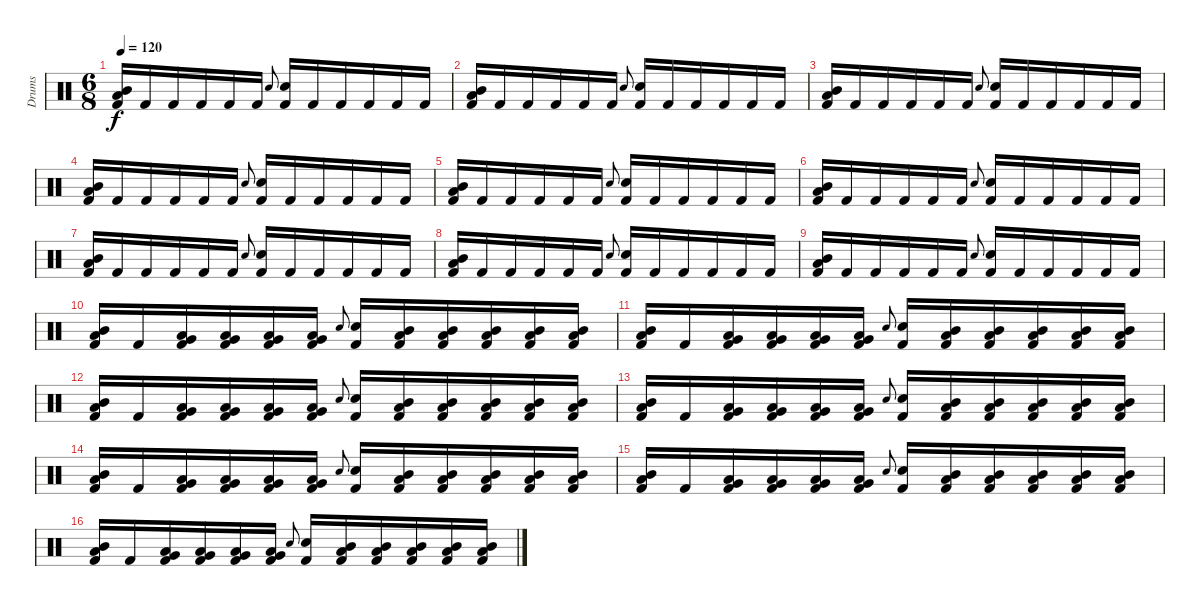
\track ("Drums" "Drums") {instrument percussion}
\staff {score}
\articulation defaults
\ts (6 8)
\tempo 120
\clef neutral
\ks c
("Mid Tom (hit)" "Low Tom (hit)" "Kick (hit) 2").16{dy f} "Kick (hit) 2".16 "Kick (hit) 2".16 "Kick (hit) 2".16 "Kick (hit) 2".16 "Kick (hit) 2".16 "Electric Snare (hit)".8{gr onbeat} ("Electric Snare (hit)" "Kick (hit) 2").16 "Kick (hit) 2".16 "Kick (hit) 2".16 "Kick (hit) 2".16 "Kick (hit) 2".16 "Kick (hit) 2".16 |
("Mid Tom (hit)" "Low Tom (hit)" "Kick (hit) 2").16 "Kick (hit) 2".16 "Kick (hit) 2".16 "Kick (hit) 2".16 "Kick (hit) 2".16 "Kick (hit) 2".16 "Electric Snare (hit)".8{gr onbeat} ("Electric Snare (hit)" "Kick (hit) 2").16 "Kick (hit) 2".16 "Kick (hit) 2".16 "Kick (hit) 2".16 "Kick (hit) 2".16 "Kick (hit) 2".16 |
("Mid Tom (hit)" "Low Tom (hit)" "Kick (hit) 2").16 "Kick (hit) 2".16 "Kick (hit) 2".16 "Kick (hit) 2".16 "Kick (hit) 2".16 "Kick (hit) 2".16 "Electric Snare (hit)".8{gr onbeat} ("Electric Snare (hit)" "Kick (hit) 2").16 "Kick (hit) 2".16 "Kick (hit) 2".16 "Kick (hit) 2".16 "Kick (hit) 2".16 "Kick (hit) 2".16 |
("Mid Tom (hit)" "Low Tom (hit)" "Kick (hit) 2").16 "Kick (hit) 2".16 "Kick (hit) 2".16 "Kick (hit) 2".16 "Kick (hit) 2".16 "Kick (hit) 2".16 "Electric Snare (hit)".8{gr onbeat} ("Electric Snare (hit)" "Kick (hit) 2").16 "Kick (hit) 2".16 "Kick (hit) 2".16 "Kick (hit) 2".16 "Kick (hit) 2".16 "Kick (hit) 2".16 |
("Mid Tom (hit)" "Low Tom (hit)" "Kick (hit) 2").16 "Kick (hit) 2".16 "Kick (hit) 2".16 "Kick (hit) 2".16 "Kick (hit) 2".16 "Kick (hit) 2".16 "Electric Snare (hit)".8{gr onbeat} ("Electric Snare (hit)" "Kick (hit) 2").16 "Kick (hit) 2".16 "Kick (hit) 2".16 "Kick (hit) 2".16 "Kick (hit) 2".16 "Kick (hit) 2".16 |
("Mid Tom (hit)" "Low Tom (hit)" "Kick (hit) 2").16 "Kick (hit) 2".16 "Kick (hit) 2".16 "Kick (hit) 2".16 "Kick (hit) 2".16 "Kick (hit) 2".16 "Electric Snare (hit)".8{gr onbeat} ("Electric Snare (hit)" "Kick (hit) 2").16 "Kick (hit) 2".16 "Kick (hit) 2".16 "Kick (hit) 2".16 "Kick (hit) 2".16 "Kick (hit) 2".16 |
("Mid Tom (hit)" "Low Tom (hit)" "Kick (hit) 2").16 "Kick (hit) 2".16 "Kick (hit) 2".16 "Kick (hit) 2".16 "Kick (hit) 2".16 "Kick (hit) 2".16 "Electric Snare (hit)".8{gr onbeat} ("Electric Snare (hit)" "Kick (hit) 2").16 "Kick (hit) 2".16 "Kick (hit) 2".16 "Kick (hit) 2".16 "Kick (hit) 2".16 "Kick (hit) 2".16 |
("Mid Tom (hit)" "Low Tom (hit)" "Kick (hit) 2").16 "Kick (hit) 2".16 "Kick (hit) 2".16 "Kick (hit) 2".16 "Kick (hit) 2".16 "Kick (hit) 2".16 "Electric Snare (hit)".8{gr onbeat} ("Electric Snare (hit)" "Kick (hit) 2").16 "Kick (hit) 2".16 "Kick (hit) 2".16 "Kick (hit) 2".16 "Kick (hit) 2".16 "Kick (hit) 2".16 |
("Mid Tom (hit)" "Low Tom (hit)" "Kick (hit) 2").16 "Kick (hit) 2".16 "Kick (hit) 2".16 "Kick (hit) 2".16 "Kick (hit) 2".16 "Kick (hit) 2".16 "Electric Snare (hit)".8{gr onbeat} ("Electric Snare (hit)" "Kick (hit) 2").16 "Kick (hit) 2".16 "Kick (hit) 2".16 "Kick (hit) 2".16 "Kick (hit) 2".16 "Kick (hit) 2".16 |
("Mid Tom (hit)" "Low Tom (hit)" "Kick (hit) 2").16 "Kick (hit) 2".16 ("Very Low Tom (hit)" "Low Tom (hit)" "Kick (hit) 2").16 ("Very Low Tom (hit)" "Low Tom (hit)" "Kick (hit) 2").16 ("Very Low Tom (hit)" "Low Tom (hit)" "Kick (hit) 2").16 ("Very Low Tom (hit)" "Low Tom (hit)" "Kick (hit) 2").16 "Electric Snare (hit)".8{gr onbeat} ("Electric Snare (hit)" "Kick (hit) 2").16 ("Mid Tom (hit)" "Low Tom (hit)" "Kick (hit) 2").16 ("Mid Tom (hit)" "Low Tom (hit)" "Kick (hit) 2").16 ("Mid Tom (hit)" "Low Tom (hit)" "Kick (hit) 2").16 ("Mid Tom (hit)" "Low Tom (hit)" "Kick (hit) 2").16 ("Mid Tom (hit)" "Low Tom (hit)" "Kick (hit) 2").16 |
("Mid Tom (hit)" "Low Tom (hit)" "Kick (hit) 2").16 "Kick (hit) 2".16 ("Very Low Tom (hit)" "Low Tom (hit)" "Kick (hit) 2").16 ("Very Low Tom (hit)" "Low Tom (hit)" "Kick (hit) 2").16 ("Very Low Tom (hit)" "Low Tom (hit)" "Kick (hit) 2").16 ("Very Low Tom (hit)" "Low Tom (hit)" "Kick (hit) 2").16 "Electric Snare (hit)".8{gr onbeat} ("Electric Snare (hit)" "Kick (hit) 2").16 ("Mid Tom (hit)" "Low Tom (hit)" "Kick (hit) 2").16 ("Mid Tom (hit)" "Low Tom (hit)" "Kick (hit) 2").16 ("Mid Tom (hit)" "Low Tom (hit)" "Kick (hit) 2").16 ("Mid Tom (hit)" "Low Tom (hit)" "Kick (hit) 2").16 ("Mid Tom (hit)" "Low Tom (hit)" "Kick (hit) 2").16 |
("Mid Tom (hit)" "Low Tom (hit)" "Kick (hit) 2").16 "Kick (hit) 2".16 ("Very Low Tom (hit)" "Low Tom (hit)" "Kick (hit) 2").16 ("Very Low Tom (hit)" "Low Tom (hit)" "Kick (hit) 2").16 ("Very Low Tom (hit)" "Low Tom (hit)" "Kick (hit) 2").16 ("Very Low Tom (hit)" "Low Tom (hit)" "Kick (hit) 2").16 "Electric Snare (hit)".8{gr onbeat} ("Electric Snare (hit)" "Kick (hit) 2").16 ("Mid Tom (hit)" "Low Tom (hit)" "Kick (hit) 2").16 ("Mid Tom (hit)" "Low Tom (hit)" "Kick (hit) 2").16 ("Mid Tom (hit)" "Low Tom (hit)" "Kick (hit) 2").16 ("Mid Tom (hit)" "Low Tom (hit)" "Kick (hit) 2").16 ("Mid Tom (hit)" "Low Tom (hit)" "Kick (hit) 2").16 |
("Mid Tom (hit)" "Low Tom (hit)" "Kick (hit) 2").16 "Kick (hit) 2".16 ("Very Low Tom (hit)" "Low Tom (hit)" "Kick (hit) 2").16 ("Very Low Tom (hit)" "Low Tom (hit)" "Kick (hit) 2").16 ("Very Low Tom (hit)" "Low Tom (hit)" "Kick (hit) 2").16 ("Very Low Tom (hit)" "Low Tom (hit)" "Kick (hit) 2").16 "Electric Snare (hit)".8{gr onbeat} ("Electric Snare (hit)" "Kick (hit) 2").16 ("Mid Tom (hit)" "Low Tom (hit)" "Kick (hit) 2").16 ("Mid Tom (hit)" "Low Tom (hit)" "Kick (hit) 2").16 ("Mid Tom (hit)" "Low Tom (hit)" "Kick (hit) 2").16 ("Mid Tom (hit)" "Low Tom (hit)" "Kick (hit) 2").16 ("Mid Tom (hit)" "Low Tom (hit)" "Kick (hit) 2").16 |
("Mid Tom (hit)" "Low Tom (hit)" "Kick (hit) 2").16 "Kick (hit) 2".16 ("Very Low Tom (hit)" "Low Tom (hit)" "Kick (hit) 2").16 ("Very Low Tom (hit)" "Low Tom (hit)" "Kick (hit) 2").16 ("Very Low Tom (hit)" "Low Tom (hit)" "Kick (hit) 2").16 ("Very Low Tom (hit)" "Low Tom (hit)" "Kick (hit) 2").16 "Electric Snare (hit)".8{gr onbeat} ("Electric Snare (hit)" "Kick (hit) 2").16 ("Mid Tom (hit)" "Low Tom (hit)" "Kick (hit) 2").16 ("Mid Tom (hit)" "Low Tom (hit)" "Kick (hit) 2").16 ("Mid Tom (hit)" "Low Tom (hit)" "Kick (hit) 2").16 ("Mid Tom (hit)" "Low Tom (hit)" "Kick (hit) 2").16 ("Mid Tom (hit)" "Low Tom (hit)" "Kick (hit) 2").16 |
("Mid Tom (hit)" "Low Tom (hit)" "Kick (hit) 2").16 "Kick (hit) 2".16 ("Very Low Tom (hit)" "Low Tom (hit)" "Kick (hit) 2").16 ("Very Low Tom (hit)" "Low Tom (hit)" "Kick (hit) 2").16 ("Very Low Tom (hit)" "Low Tom (hit)" "Kick (hit) 2").16 ("Very Low Tom (hit)" "Low Tom (hit)" "Kick (hit) 2").16 "Electric Snare (hit)".8{gr onbeat} ("Electric Snare (hit)" "Kick (hit) 2").16 ("Mid Tom (hit)" "Low Tom (hit)" "Kick (hit) 2").16 ("Mid Tom (hit)" "Low Tom (hit)" "Kick (hit) 2").16 ("Mid Tom (hit)" "Low Tom (hit)" "Kick (hit) 2").16 ("Mid Tom (hit)" "Low Tom (hit)" "Kick (hit) 2").16 ("Mid Tom (hit)" "Low Tom (hit)" "Kick (hit) 2").16 |
("Mid Tom (hit)" "Low Tom (hit)" "Kick (hit) 2").16 "Kick (hit) 2".16 ("Very Low Tom (hit)" "Low Tom (hit)" "Kick (hit) 2").16 ("Very Low Tom (hit)" "Low Tom (hit)" "Kick (hit) 2").16 ("Very Low Tom (hit)" "Low Tom (hit)" "Kick (hit) 2").16 ("Very Low Tom (hit)" "Low Tom (hit)" "Kick (hit) 2").16 "Electric Snare (hit)".8{gr onbeat} ("Electric Snare (hit)" "Kick (hit) 2").16 ("Mid Tom (hit)" "Low Tom (hit)" "Kick (hit) 2").16 ("Mid Tom (hit)" "Low Tom (hit)" "Kick (hit) 2").16 ("Mid Tom (hit)" "Low Tom (hit)" "Kick (hit) 2").16 ("Mid Tom (hit)" "Low Tom (hit)" "Kick (hit) 2").16 ("Mid Tom (hit)" "Low Tom (hit)" "Kick (hit) 2").16
